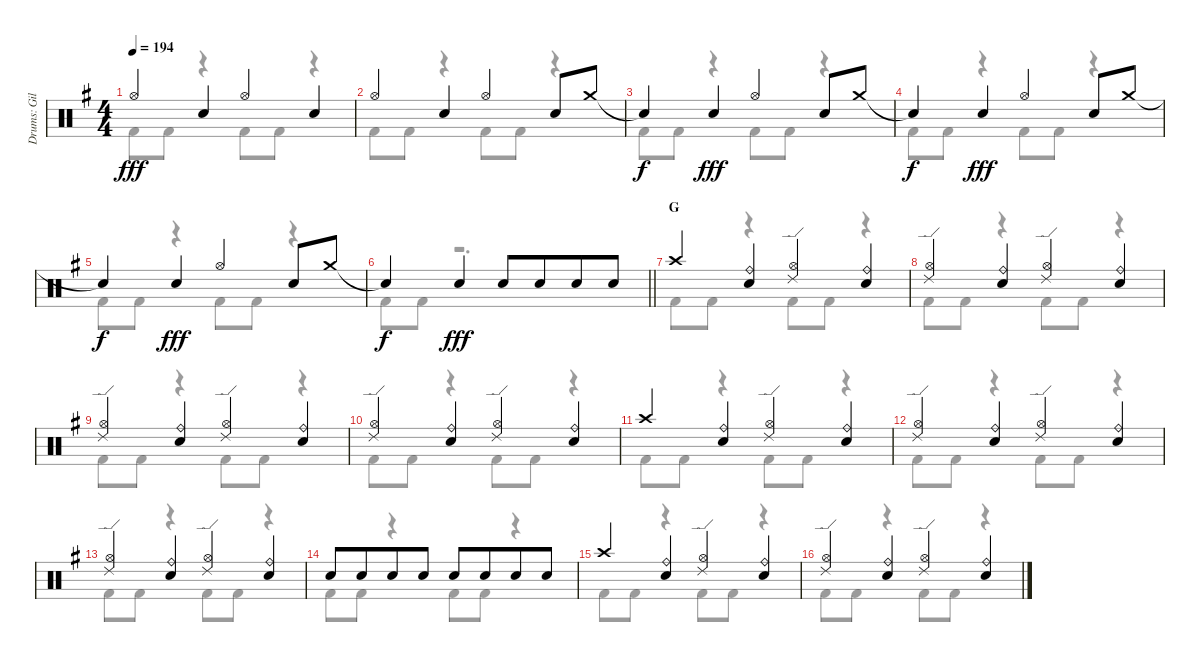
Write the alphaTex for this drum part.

\track ("Drums: Gil" "Drums: Gil") {instrument percussion}
\staff {score}
\articulation defaults
\voice
\ts (4 4)
\tempo 194
\clef neutral
\ks g "Hi-Hat (open)".4{dy fff} "Snare (hit) 2".4 "Hi-Hat (open)".4 "Snare (hit) 2".4
|
"Hi-Hat (open)".4 "Snare (hit) 2".4 "Hi-Hat (open)".4 "Snare (hit) 2".8 "Crash medium (hit)".8 |
"Snare (hit)"{t}.4{dy f} "Snare (hit) 2".4{dy fff} "Hi-Hat (open)".4 "Snare (hit) 2".8 "Crash medium (hit)".8 |
"Snare (hit)"{t}.4{dy f} "Snare (hit) 2".4{dy fff} "Hi-Hat (open)".4 "Snare (hit) 2".8 "Crash medium (hit)".8 |
"Snare (hit)"{t}.4{dy f} "Snare (hit) 2".4{dy fff} "Hi-Hat (open)".4 "Snare (hit) 2".8 "Crash medium (hit)".8 |
\barLineRight lightlight "Snare (hit)"{t}.4{dy f} "Snare (hit) 2".4{dy fff} "Snare (hit) 2".8 "Snare (hit) 2".8{beam merge} "Snare (hit) 2".8 "Snare (hit) 2".8
|
\section ("" "G")
"Crash high (hit)".4 ("Ride (bell)" "Snare (hit) 2").4 ("Ride (edge) 2" "Hi-Hat (open)").4 ("Ride (bell)" "Snare (hit) 2").4 |
("Ride (edge) 2" "Hi-Hat (open)").4 ("Ride (bell)" "Snare (hit) 2").4 ("Ride (edge) 2" "Hi-Hat (open)").4 ("Ride (bell)" "Snare (hit) 2").4 |
("Ride (edge) 2" "Hi-Hat (open)").4 ("Ride (bell)" "Snare (hit) 2").4 ("Ride (edge) 2" "Hi-Hat (open)").4 ("Ride (bell)" "Snare (hit) 2").4 |
("Ride (edge) 2" "Hi-Hat (open)").4 ("Ride (bell)" "Snare (hit) 2").4 ("Ride (edge) 2" "Hi-Hat (open)").4 ("Ride (bell)" "Snare (hit) 2").4 |
"Crash high (hit)".4 ("Ride (bell)" "Snare (hit) 2").4 ("Ride (edge) 2" "Hi-Hat (open)").4 ("Ride (bell)" "Snare (hit) 2").4 |
("Ride (edge) 2" "Hi-Hat (open)").4 ("Ride (bell)" "Snare (hit) 2").4 ("Ride (edge) 2" "Hi-Hat (open)").4 ("Ride (bell)" "Snare (hit) 2").4 |
("Ride (edge) 2" "Hi-Hat (open)").4 ("Ride (bell)" "Snare (hit) 2").4 ("Ride (edge) 2" "Hi-Hat (open)").4 ("Ride (bell)" "Snare (hit) 2").4 |
"Snare (hit) 2".8 "Snare (hit) 2".8{beam merge} "Snare (hit) 2".8 "Snare (hit) 2".8 "Snare (hit) 2".8 "Snare (hit) 2".8{beam merge} "Snare (hit) 2".8 "Snare (hit) 2".8 |
"Crash high (hit)".4 ("Ride (bell)" "Snare (hit) 2").4 ("Ride (edge) 2" "Hi-Hat (open)").4 ("Ride (bell)" "Snare (hit) 2").4 |
("Ride (edge) 2" "Hi-Hat (open)").4 ("Ride (bell)" "Snare (hit) 2").4 ("Ride (edge) 2" "Hi-Hat (open)").4 ("Ride (bell)" "Snare (hit) 2").4
\voice
\clef neutral
\ottava regular
\simile none
\ks g "Kick (hit) 2".8{dy fff} "Kick (hit) 2".8
r.4 "Kick (hit) 2".8 "Kick (hit) 2".8 r.4 |
"Kick (hit) 2".8 "Kick (hit) 2".8 r.4 "Kick (hit) 2".8 "Kick (hit) 2".8 r.4 |
"Kick (hit) 2".8 "Kick (hit) 2".8 r.4 "Kick (hit) 2".8 "Kick (hit) 2".8 r.4 |
"Kick (hit) 2".8 "Kick (hit) 2".8 r.4 "Kick (hit) 2".8 "Kick (hit) 2".8 r.4 |
"Kick (hit) 2".8 "Kick (hit) 2".8 r.4 "Kick (hit) 2".8 "Kick (hit) 2".8 r.4 |
\barLineRight lightlight "Kick (hit) 2".8 "Kick (hit) 2".8
r.2{d} |
"Kick (hit) 2".8 "Kick (hit) 2".8 r.4 "Kick (hit) 2".8 "Kick (hit) 2".8 r.4 |
"Kick (hit) 2".8 "Kick (hit) 2".8 r.4 "Kick (hit) 2".8 "Kick (hit) 2".8 r.4 |
"Kick (hit) 2".8 "Kick (hit) 2".8 r.4 "Kick (hit) 2".8 "Kick (hit) 2".8 r.4 |
"Kick (hit) 2".8 "Kick (hit) 2".8 r.4 "Kick (hit) 2".8 "Kick (hit) 2".8 r.4 |
"Kick (hit) 2".8 "Kick (hit) 2".8 r.4 "Kick (hit) 2".8 "Kick (hit) 2".8 r.4 |
"Kick (hit) 2".8 "Kick (hit) 2".8 r.4 "Kick (hit) 2".8 "Kick (hit) 2".8 r.4 |
"Kick (hit) 2".8 "Kick (hit) 2".8 r.4 "Kick (hit) 2".8 "Kick (hit) 2".8 r.4 |
"Kick (hit) 2".8 "Kick (hit) 2".8 r.4 "Kick (hit) 2".8 "Kick (hit) 2".8 r.4 |
"Kick (hit) 2".8 "Kick (hit) 2".8 r.4 "Kick (hit) 2".8 "Kick (hit) 2".8 r.4 |
"Kick (hit) 2".8 "Kick (hit) 2".8 r.4 "Kick (hit) 2".8 "Kick (hit) 2".8 r.4
